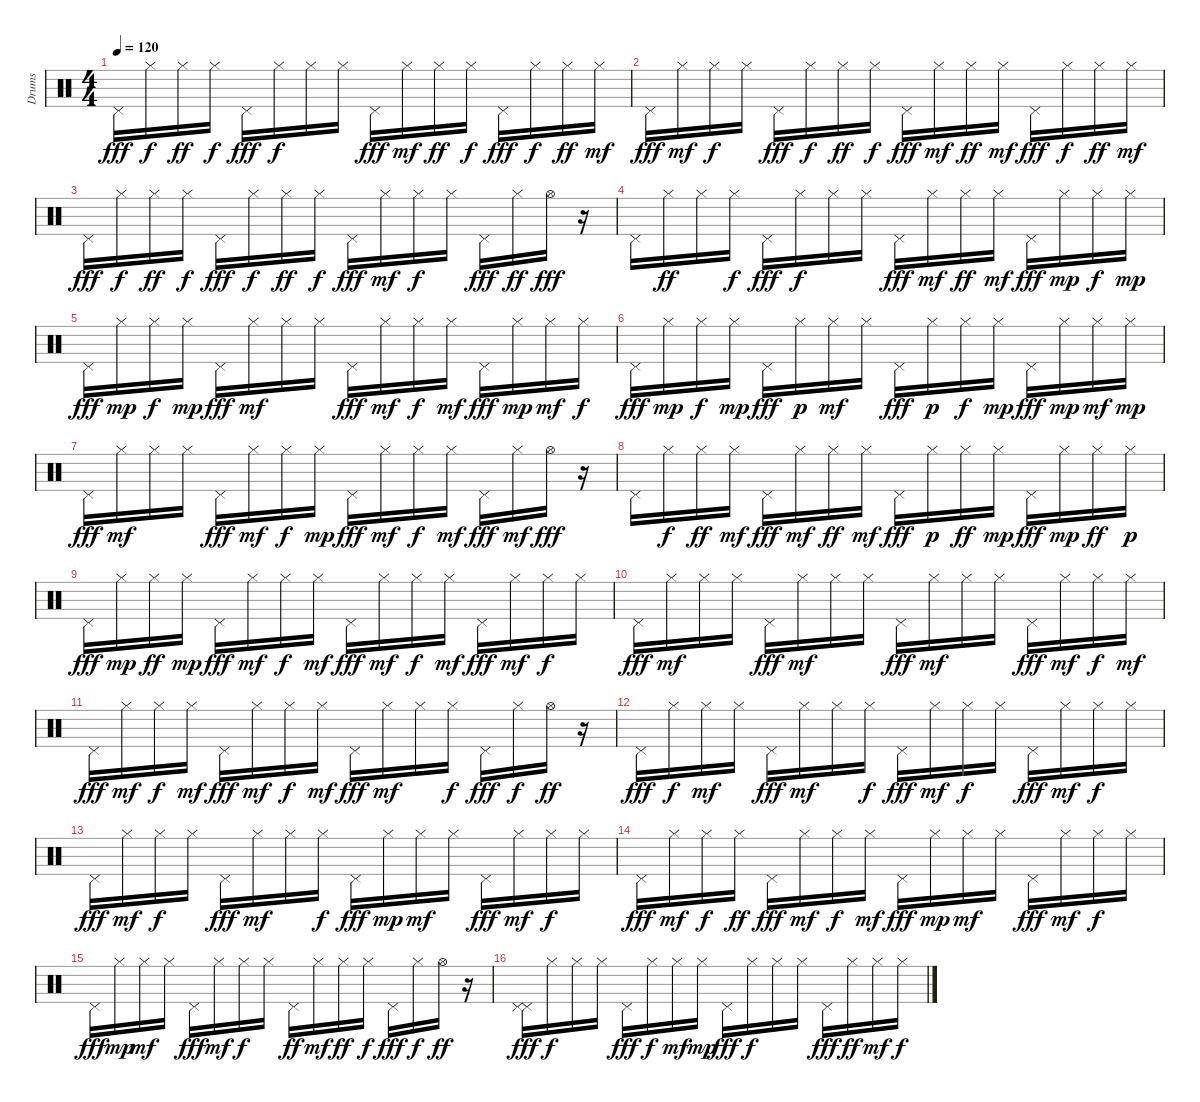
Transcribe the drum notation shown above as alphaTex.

\track ("Drums" "Drums") {instrument percussion}
\staff {score}
\articulation defaults
\ts (4 4)
\tempo 120
\clef neutral
\ks c "Pedal Hi-Hat (hit)".16{dy fff} "Hi-Hat (closed)".16{dy f} "Hi-Hat (closed)".16{dy ff} "Hi-Hat (closed)".16{dy f} "Pedal Hi-Hat (hit)".16{dy fff} "Hi-Hat (closed)".16{dy f} "Hi-Hat (closed)".16 "Hi-Hat (closed)".16 "Pedal Hi-Hat (hit)".16{dy fff} "Hi-Hat (closed)".16{dy mf} "Hi-Hat (closed)".16{dy ff} "Hi-Hat (closed)".16{dy f} "Pedal Hi-Hat (hit)".16{dy fff} "Hi-Hat (closed)".16{dy f} "Hi-Hat (closed)".16{dy ff} "Hi-Hat (closed)".16{dy mf}
|
"Pedal Hi-Hat (hit)".16{dy fff} "Hi-Hat (closed)".16{dy mf} "Hi-Hat (closed)".16{dy f} "Hi-Hat (closed)".16 "Pedal Hi-Hat (hit)".16{dy fff} "Hi-Hat (closed)".16{dy f} "Hi-Hat (closed)".16{dy ff} "Hi-Hat (closed)".16{dy f} "Pedal Hi-Hat (hit)".16{dy fff} "Hi-Hat (closed)".16{dy mf} "Hi-Hat (closed)".16{dy ff} "Hi-Hat (closed)".16{dy mf} "Pedal Hi-Hat (hit)".16{dy fff} "Hi-Hat (closed)".16{dy f} "Hi-Hat (closed)".16{dy ff} "Hi-Hat (closed)".16{dy mf} |
"Pedal Hi-Hat (hit)".16{dy fff} "Hi-Hat (closed)".16{dy f} "Hi-Hat (closed)".16{dy ff} "Hi-Hat (closed)".16{dy f} "Pedal Hi-Hat (hit)".16{dy fff} "Hi-Hat (closed)".16{dy f} "Hi-Hat (closed)".16{dy ff} "Hi-Hat (closed)".16{dy f} "Pedal Hi-Hat (hit)".16{dy fff} "Hi-Hat (closed)".16{dy mf} "Hi-Hat (closed)".16{dy f} "Hi-Hat (closed)".16 "Pedal Hi-Hat (hit)".16{dy fff} "Hi-Hat (closed)".16{dy ff} "Hi-Hat (open)".16{dy fff} r.16 |
"Pedal Hi-Hat (hit)".16 "Hi-Hat (closed)".16{dy ff} "Hi-Hat (closed)".16 "Hi-Hat (closed)".16{dy f} "Pedal Hi-Hat (hit)".16{dy fff} "Hi-Hat (closed)".16{dy f} "Hi-Hat (closed)".16 "Hi-Hat (closed)".16 "Pedal Hi-Hat (hit)".16{dy fff} "Hi-Hat (closed)".16{dy mf} "Hi-Hat (closed)".16{dy ff} "Hi-Hat (closed)".16{dy mf} "Pedal Hi-Hat (hit)".16{dy fff} "Hi-Hat (closed)".16{dy mp} "Hi-Hat (closed)".16{dy f} "Hi-Hat (closed)".16{dy mp} |
"Pedal Hi-Hat (hit)".16{dy fff} "Hi-Hat (closed)".16{dy mp} "Hi-Hat (closed)".16{dy f} "Hi-Hat (closed)".16{dy mp} "Pedal Hi-Hat (hit)".16{dy fff} "Hi-Hat (closed)".16{dy mf} "Hi-Hat (closed)".16 "Hi-Hat (closed)".16 "Pedal Hi-Hat (hit)".16{dy fff} "Hi-Hat (closed)".16{dy mf} "Hi-Hat (closed)".16{dy f} "Hi-Hat (closed)".16{dy mf} "Pedal Hi-Hat (hit)".16{dy fff} "Hi-Hat (closed)".16{dy mp} "Hi-Hat (closed)".16{dy mf} "Hi-Hat (closed)".16{dy f} |
"Pedal Hi-Hat (hit)".16{dy fff} "Hi-Hat (closed)".16{dy mp} "Hi-Hat (closed)".16{dy f} "Hi-Hat (closed)".16{dy mp} "Pedal Hi-Hat (hit)".16{dy fff} "Hi-Hat (closed)".16{dy p} "Hi-Hat (closed)".16{dy mf} "Hi-Hat (closed)".16 "Pedal Hi-Hat (hit)".16{dy fff} "Hi-Hat (closed)".16{dy p} "Hi-Hat (closed)".16{dy f} "Hi-Hat (closed)".16{dy mp} "Pedal Hi-Hat (hit)".16{dy fff} "Hi-Hat (closed)".16{dy mp} "Hi-Hat (closed)".16{dy mf} "Hi-Hat (closed)".16{dy mp} |
"Pedal Hi-Hat (hit)".16{dy fff} "Hi-Hat (closed)".16{dy mf} "Hi-Hat (closed)".16 "Hi-Hat (closed)".16 "Pedal Hi-Hat (hit)".16{dy fff} "Hi-Hat (closed)".16{dy mf} "Hi-Hat (closed)".16{dy f} "Hi-Hat (closed)".16{dy mp} "Pedal Hi-Hat (hit)".16{dy fff} "Hi-Hat (closed)".16{dy mf} "Hi-Hat (closed)".16{dy f} "Hi-Hat (closed)".16{dy mf} "Pedal Hi-Hat (hit)".16{dy fff} "Hi-Hat (closed)".16{dy mf} "Hi-Hat (open)".16{dy fff} r.16 |
"Pedal Hi-Hat (hit)".16 "Hi-Hat (closed)".16{dy f} "Hi-Hat (closed)".16{dy ff} "Hi-Hat (closed)".16{dy mf} "Pedal Hi-Hat (hit)".16{dy fff} "Hi-Hat (closed)".16{dy mf} "Hi-Hat (closed)".16{dy ff} "Hi-Hat (closed)".16{dy mf} "Pedal Hi-Hat (hit)".16{dy fff} "Hi-Hat (closed)".16{dy p} "Hi-Hat (closed)".16{dy ff} "Hi-Hat (closed)".16{dy mp} "Pedal Hi-Hat (hit)".16{dy fff} "Hi-Hat (closed)".16{dy mp} "Hi-Hat (closed)".16{dy ff} "Hi-Hat (closed)".16{dy p} |
"Pedal Hi-Hat (hit)".16{dy fff} "Hi-Hat (closed)".16{dy mp} "Hi-Hat (closed)".16{dy ff} "Hi-Hat (closed)".16{dy mp} "Pedal Hi-Hat (hit)".16{dy fff} "Hi-Hat (closed)".16{dy mf} "Hi-Hat (closed)".16{dy f} "Hi-Hat (closed)".16{dy mf} "Pedal Hi-Hat (hit)".16{dy fff} "Hi-Hat (closed)".16{dy mf} "Hi-Hat (closed)".16{dy f} "Hi-Hat (closed)".16{dy mf} "Pedal Hi-Hat (hit)".16{dy fff} "Hi-Hat (closed)".16{dy mf} "Hi-Hat (closed)".16{dy f} "Hi-Hat (closed)".16 |
"Pedal Hi-Hat (hit)".16{dy fff} "Hi-Hat (closed)".16{dy mf} "Hi-Hat (closed)".16 "Hi-Hat (closed)".16 "Pedal Hi-Hat (hit)".16{dy fff} "Hi-Hat (closed)".16{dy mf} "Hi-Hat (closed)".16 "Hi-Hat (closed)".16 "Pedal Hi-Hat (hit)".16{dy fff} "Hi-Hat (closed)".16{dy mf} "Hi-Hat (closed)".16 "Hi-Hat (closed)".16 "Pedal Hi-Hat (hit)".16{dy fff} "Hi-Hat (closed)".16{dy mf} "Hi-Hat (closed)".16{dy f} "Hi-Hat (closed)".16{dy mf} |
"Pedal Hi-Hat (hit)".16{dy fff} "Hi-Hat (closed)".16{dy mf} "Hi-Hat (closed)".16{dy f} "Hi-Hat (closed)".16{dy mf} "Pedal Hi-Hat (hit)".16{dy fff} "Hi-Hat (closed)".16{dy mf} "Hi-Hat (closed)".16{dy f} "Hi-Hat (closed)".16{dy mf} "Pedal Hi-Hat (hit)".16{dy fff} "Hi-Hat (closed)".16{dy mf} "Hi-Hat (closed)".16 "Hi-Hat (closed)".16{dy f} "Pedal Hi-Hat (hit)".16{dy fff} "Hi-Hat (closed)".16{dy f} "Hi-Hat (open)".16{dy ff} r.16 |
"Pedal Hi-Hat (hit)".16{dy fff} "Hi-Hat (closed)".16{dy f} "Hi-Hat (closed)".16{dy mf} "Hi-Hat (closed)".16 "Pedal Hi-Hat (hit)".16{dy fff} "Hi-Hat (closed)".16{dy mf} "Hi-Hat (closed)".16 "Hi-Hat (closed)".16{dy f} "Pedal Hi-Hat (hit)".16{dy fff} "Hi-Hat (closed)".16{dy mf} "Hi-Hat (closed)".16{dy f} "Hi-Hat (closed)".16 "Pedal Hi-Hat (hit)".16{dy fff} "Hi-Hat (closed)".16{dy mf} "Hi-Hat (closed)".16{dy f} "Hi-Hat (closed)".16 |
"Pedal Hi-Hat (hit)".16{dy fff} "Hi-Hat (closed)".16{dy mf} "Hi-Hat (closed)".16{dy f} "Hi-Hat (closed)".16 "Pedal Hi-Hat (hit)".16{dy fff} "Hi-Hat (closed)".16{dy mf} "Hi-Hat (closed)".16 "Hi-Hat (closed)".16{dy f} "Pedal Hi-Hat (hit)".16{dy fff} "Hi-Hat (closed)".16{dy mp} "Hi-Hat (closed)".16{dy mf} "Hi-Hat (closed)".16 "Pedal Hi-Hat (hit)".16{dy fff} "Hi-Hat (closed)".16{dy mf} "Hi-Hat (closed)".16{dy f} "Hi-Hat (closed)".16 |
"Pedal Hi-Hat (hit)".16{dy fff} "Hi-Hat (closed)".16{dy mf} "Hi-Hat (closed)".16{dy f} "Hi-Hat (closed)".16{dy ff} "Pedal Hi-Hat (hit)".16{dy fff} "Hi-Hat (closed)".16{dy mf} "Hi-Hat (closed)".16{dy f} "Hi-Hat (closed)".16{dy mf} "Pedal Hi-Hat (hit)".16{dy fff} "Hi-Hat (closed)".16{dy mp} "Hi-Hat (closed)".16{dy mf} "Hi-Hat (closed)".16 "Pedal Hi-Hat (hit)".16{dy fff} "Hi-Hat (closed)".16{dy mf} "Hi-Hat (closed)".16{dy f} "Hi-Hat (closed)".16 |
"Pedal Hi-Hat (hit)".16{dy fff} "Hi-Hat (closed)".16{dy mp} "Hi-Hat (closed)".16{dy mf} "Hi-Hat (closed)".16 "Pedal Hi-Hat (hit)".16{dy fff} "Hi-Hat (closed)".16{dy mf} "Hi-Hat (closed)".16{dy f} "Hi-Hat (closed)".16 "Pedal Hi-Hat (hit)".16{dy ff} "Hi-Hat (closed)".16{dy mf} "Hi-Hat (closed)".16{dy ff} "Hi-Hat (closed)".16{dy f} "Pedal Hi-Hat (hit)".16{dy fff} "Hi-Hat (closed)".16{dy f} "Hi-Hat (open)".16{dy ff} r.16 |
("Pedal Hi-Hat (hit)" "Pedal Hi-Hat (hit)").16{dy fff} "Hi-Hat (closed)".16{dy f} "Hi-Hat (closed)".16 "Hi-Hat (closed)".16 "Pedal Hi-Hat (hit)".16{dy fff} "Hi-Hat (closed)".16{dy f} "Hi-Hat (closed)".16{dy mf} "Hi-Hat (closed)".16{dy mp} "Pedal Hi-Hat (hit)".16{dy fff} "Hi-Hat (closed)".16{dy f} "Hi-Hat (closed)".16 "Hi-Hat (closed)".16 "Pedal Hi-Hat (hit)".16{dy fff} "Hi-Hat (closed)".16{dy ff} "Hi-Hat (closed)".16{dy mf} "Hi-Hat (closed)".16{dy f}
